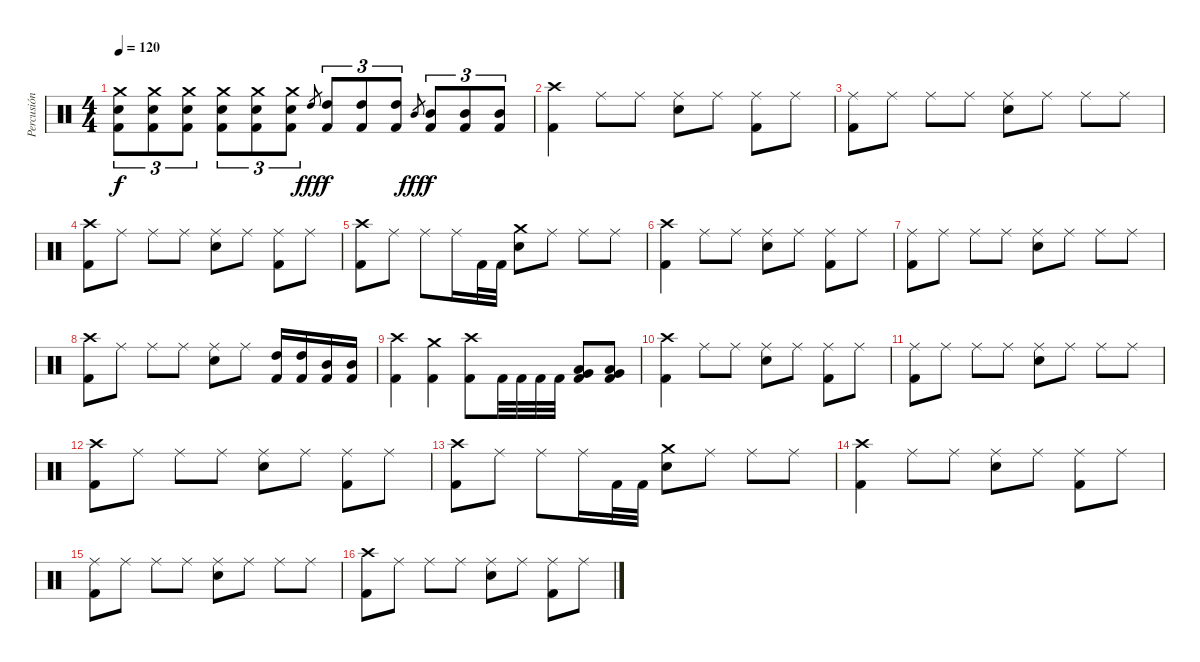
\track ("Percusión" "Percusión") {instrument percussion}
\staff {score}
\articulation defaults
\ts (4 4)
\tempo 120
\clef neutral
\ks c
("Crash medium (hit)" "Electric Snare (hit)" "Kick (hit) 2").8{tu (3 2) dy f} ("Crash medium (hit)" "Electric Snare (hit)" "Kick (hit) 2").8{tu (3 2)} ("Crash medium (hit)" "Electric Snare (hit)" "Kick (hit) 2").8{tu (3 2)} ("Crash medium (hit)" "Electric Snare (hit)" "Kick (hit) 2").8{tu (3 2)} ("Crash medium (hit)" "Electric Snare (hit)" "Kick (hit) 2").8{tu (3 2)} ("Crash medium (hit)" "Electric Snare (hit)" "Kick (hit) 2").8{tu (3 2)} "High Tom (hit)".8{gr dy fff} ("High Tom (hit)" "Kick (hit) 2").8{tu (3 2) dy f} ("High Tom (hit)" "Kick (hit) 2").8{tu (3 2)} ("High Tom (hit)" "Kick (hit) 2").8{tu (3 2)} "Mid Tom (hit)".8{gr dy fff} ("Mid Tom (hit)" "Kick (hit) 2").8{tu (3 2) dy f} ("Mid Tom (hit)" "Kick (hit) 2").8{tu (3 2)} ("Mid Tom (hit)" "Kick (hit) 2").8{tu (3 2)} |
("Crash high (hit)" "Kick (hit) 2").4 "Ride (middle)".8 "Ride (middle)".8 ("Ride (middle)" "Electric Snare (hit)").8 "Ride (middle)".8 ("Ride (middle)" "Kick (hit) 2").8 "Ride (middle)".8 |
("Ride (middle)" "Kick (hit) 2").8 "Ride (middle)".8 "Ride (middle)".8 "Ride (middle)".8 ("Ride (middle)" "Electric Snare (hit)").8 "Ride (middle)".8 "Ride (middle)".8 "Ride (middle)".8 |
("Crash high (hit)" "Kick (hit) 2").8 "Ride (middle)".8 "Ride (middle)".8 "Ride (middle)".8 ("Ride (middle)" "Electric Snare (hit)").8 "Ride (middle)".8 ("Ride (middle)" "Kick (hit) 2").8 "Ride (middle)".8 |
("Crash high (hit)" "Kick (hit) 2").8 "Ride (middle)".8 "Ride (middle)".8 "Ride (middle)".16 "Kick (hit) 2".32 "Kick (hit) 2".32 ("Crash medium (hit)" "Electric Snare (hit)").8 "Ride (middle)".8 "Ride (middle)".8 "Ride (middle)".8 |
("Crash high (hit)" "Kick (hit) 2").4 "Ride (middle)".8 "Ride (middle)".8 ("Ride (middle)" "Electric Snare (hit)").8 "Ride (middle)".8 ("Ride (middle)" "Kick (hit) 2").8 "Ride (middle)".8 |
("Ride (middle)" "Kick (hit) 2").8 "Ride (middle)".8 "Ride (middle)".8 "Ride (middle)".8 ("Ride (middle)" "Electric Snare (hit)").8 "Ride (middle)".8 "Ride (middle)".8 "Ride (middle)".8 |
("Crash high (hit)" "Kick (hit) 2").8 "Ride (middle)".8 "Ride (middle)".8 "Ride (middle)".8 ("Ride (middle)" "Electric Snare (hit)").8 "Ride (middle)".8 ("High Tom (hit)" "Kick (hit) 2").16 ("High Tom (hit)" "Kick (hit) 2").16 ("Mid Tom (hit)" "Kick (hit) 2").16 ("Mid Tom (hit)" "Kick (hit) 2").16 |
("Crash high (hit)" "Kick (hit) 2").4 ("Crash medium (hit)" "Kick (hit) 2").4 ("Crash high (hit)" "Kick (hit) 2").8 "Kick (hit) 2".32 "Kick (hit) 2".32 "Kick (hit) 2".32 "Kick (hit) 2".32 ("Low Floor Tom (hit)" "Very Low Tom (hit)" "Kick (hit) 2").8 ("Low Floor Tom (hit)" "Very Low Tom (hit)" "Kick (hit) 2").8 |
("Crash high (hit)" "Kick (hit) 2").4 "Ride (middle)".8 "Ride (middle)".8 ("Ride (middle)" "Electric Snare (hit)").8 "Ride (middle)".8 ("Ride (middle)" "Kick (hit) 2").8 "Ride (middle)".8 |
("Ride (middle)" "Kick (hit) 2").8 "Ride (middle)".8 "Ride (middle)".8 "Ride (middle)".8 ("Ride (middle)" "Electric Snare (hit)").8 "Ride (middle)".8 "Ride (middle)".8 "Ride (middle)".8 |
("Crash high (hit)" "Kick (hit) 2").8 "Ride (middle)".8 "Ride (middle)".8 "Ride (middle)".8 ("Ride (middle)" "Electric Snare (hit)").8 "Ride (middle)".8 ("Ride (middle)" "Kick (hit) 2").8 "Ride (middle)".8 |
("Crash high (hit)" "Kick (hit) 2").8 "Ride (middle)".8 "Ride (middle)".8 "Ride (middle)".16 "Kick (hit) 2".32 "Kick (hit) 2".32 ("Crash medium (hit)" "Electric Snare (hit)").8 "Ride (middle)".8 "Ride (middle)".8 "Ride (middle)".8 |
("Crash high (hit)" "Kick (hit) 2").4 "Ride (middle)".8 "Ride (middle)".8 ("Ride (middle)" "Electric Snare (hit)").8 "Ride (middle)".8 ("Ride (middle)" "Kick (hit) 2").8 "Ride (middle)".8 |
("Ride (middle)" "Kick (hit) 2").8 "Ride (middle)".8 "Ride (middle)".8 "Ride (middle)".8 ("Ride (middle)" "Electric Snare (hit)").8 "Ride (middle)".8 "Ride (middle)".8 "Ride (middle)".8 |
("Crash high (hit)" "Kick (hit) 2").8 "Ride (middle)".8 "Ride (middle)".8 "Ride (middle)".8 ("Ride (middle)" "Electric Snare (hit)").8 "Ride (middle)".8 ("Ride (middle)" "Kick (hit) 2").8 "Ride (middle)".8
